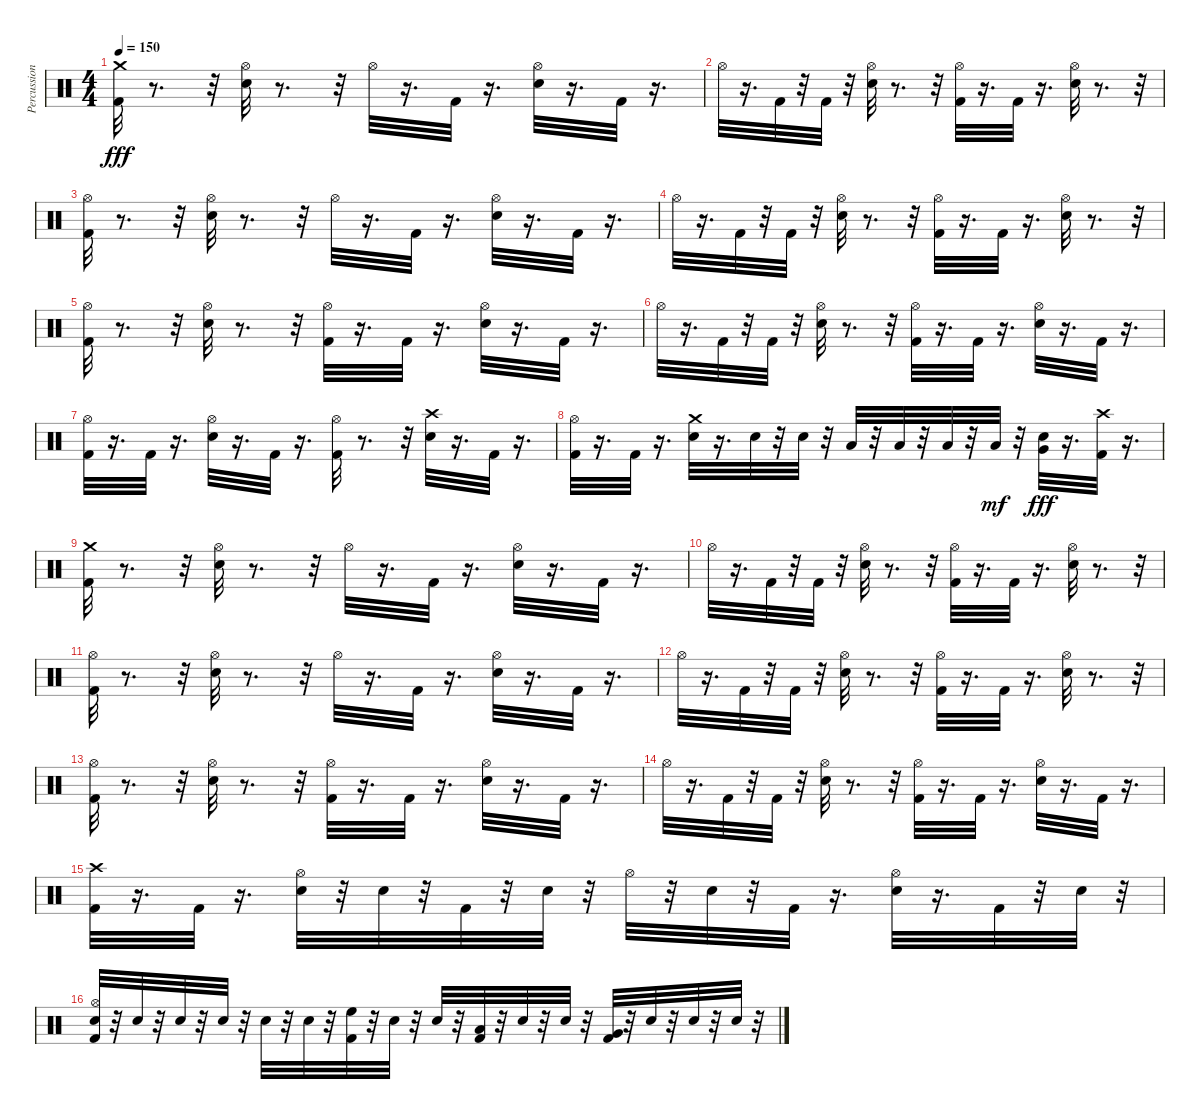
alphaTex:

\track ("Percussion" "Percussion") {instrument percussion}
\staff {score}
\articulation defaults
\ts (4 4)
\tempo 150
\clef neutral
\ks c
("Crash medium (hit)" "Kick (hit) 2").32{dy fff} r.8{d} r.32 ("Snare (hit) 2" "Hi-Hat (open)").32 r.8{d} r.32 "Hi-Hat (open)".32 r.16{d} "Kick (hit) 2".32 r.16{d} ("Snare (hit) 2" "Hi-Hat (open)").32 r.16{d} "Kick (hit) 2".32 r.16{d} |
"Hi-Hat (open)".32 r.16{d} "Kick (hit) 2".32 r.32 "Kick (hit) 2".32 r.32 ("Snare (hit) 2" "Hi-Hat (open)").32 r.8{d} r.32 ("Hi-Hat (open)" "Kick (hit) 2").32 r.16{d} "Kick (hit) 2".32 r.16{d} ("Snare (hit) 2" "Hi-Hat (open)").32 r.8{d} r.32 |
("Hi-Hat (open)" "Kick (hit) 2").32 r.8{d} r.32 ("Snare (hit) 2" "Hi-Hat (open)").32 r.8{d} r.32 "Hi-Hat (open)".32 r.16{d} "Kick (hit) 2".32 r.16{d} ("Hi-Hat (open)" "Snare (hit) 2").32 r.16{d} "Kick (hit) 2".32 r.16{d} |
"Hi-Hat (open)".32 r.16{d} "Kick (hit) 2".32 r.32 "Kick (hit) 2".32 r.32 ("Snare (hit) 2" "Hi-Hat (open)").32 r.8{d} r.32 ("Hi-Hat (open)" "Kick (hit) 2").32 r.16{d} "Kick (hit) 2".32 r.16{d} ("Snare (hit) 2" "Hi-Hat (open)").32 r.8{d} r.32 |
("Hi-Hat (open)" "Kick (hit) 2").32 r.8{d} r.32 ("Hi-Hat (open)" "Snare (hit) 2").32 r.8{d} r.32 ("Hi-Hat (open)" "Kick (hit) 2").32 r.16{d} "Kick (hit) 2".32 r.16{d} ("Snare (hit) 2" "Hi-Hat (open)").32 r.16{d} "Kick (hit) 2".32 r.16{d} |
"Hi-Hat (open)".32 r.16{d} "Kick (hit) 2".32 r.32 "Kick (hit) 2".32 r.32 ("Snare (hit) 2" "Hi-Hat (open)").32 r.8{d} r.32 ("Hi-Hat (open)" "Kick (hit) 2").32 r.16{d} "Kick (hit) 2".32 r.16{d} ("Hi-Hat (open)" "Snare (hit) 2").32 r.16{d} "Kick (hit) 2".32 r.16{d} |
("Hi-Hat (open)" "Kick (hit) 2").32 r.16{d} "Kick (hit) 2".32 r.16{d} ("Electric Snare (hit)" "Hi-Hat (open)").32 r.16{d} "Kick (hit) 2".32 r.16{d} ("Hi-Hat (open)" "Kick (hit) 2").32 r.8{d} r.32 ("Electric Snare (hit)" "Crash high (hit)").32 r.16{d} "Kick (hit) 2".32 r.16{d} |
("Hi-Hat (open)" "Kick (hit) 2").32 r.16{d} "Kick (hit) 2".32 r.16{d} ("Crash medium (hit)" "Electric Snare (hit)").32 r.16{d} "Snare (hit) 2".32 r.32 "Electric Snare (hit)".32 r.32 "Low Tom (hit)".32 r.32 "Low Tom (hit)".32 r.32 "Low Tom (hit)".32 r.32 "Low Tom (hit)".32{dy mf} r.32 ("Very Low Tom (hit)" "Electric Snare (hit)").32{dy fff} r.16{d} ("Crash high (hit)" "Kick (hit) 2").32 r.16{d} |
("Crash medium (hit)" "Kick (hit) 2").32 r.8{d} r.32 ("Snare (hit) 2" "Hi-Hat (open)").32 r.8{d} r.32 "Hi-Hat (open)".32 r.16{d} "Kick (hit) 2".32 r.16{d} ("Snare (hit) 2" "Hi-Hat (open)").32 r.16{d} "Kick (hit) 2".32 r.16{d} |
"Hi-Hat (open)".32 r.16{d} "Kick (hit) 2".32 r.32 "Kick (hit) 2".32 r.32 ("Snare (hit) 2" "Hi-Hat (open)").32 r.8{d} r.32 ("Hi-Hat (open)" "Kick (hit) 2").32 r.16{d} "Kick (hit) 2".32 r.16{d} ("Snare (hit) 2" "Hi-Hat (open)").32 r.8{d} r.32 |
("Hi-Hat (open)" "Kick (hit) 2").32 r.8{d} r.32 ("Snare (hit) 2" "Hi-Hat (open)").32 r.8{d} r.32 "Hi-Hat (open)".32 r.16{d} "Kick (hit) 2".32 r.16{d} ("Hi-Hat (open)" "Snare (hit) 2").32 r.16{d} "Kick (hit) 2".32 r.16{d} |
"Hi-Hat (open)".32 r.16{d} "Kick (hit) 2".32 r.32 "Kick (hit) 2".32 r.32 ("Snare (hit) 2" "Hi-Hat (open)").32 r.8{d} r.32 ("Hi-Hat (open)" "Kick (hit) 2").32 r.16{d} "Kick (hit) 2".32 r.16{d} ("Snare (hit) 2" "Hi-Hat (open)").32 r.8{d} r.32 |
("Hi-Hat (open)" "Kick (hit) 2").32 r.8{d} r.32 ("Hi-Hat (open)" "Snare (hit) 2").32 r.8{d} r.32 ("Hi-Hat (open)" "Kick (hit) 2").32 r.16{d} "Kick (hit) 2".32 r.16{d} ("Snare (hit) 2" "Hi-Hat (open)").32 r.16{d} "Kick (hit) 2".32 r.16{d} |
"Hi-Hat (open)".32 r.16{d} "Kick (hit) 2".32 r.32 "Kick (hit) 2".32 r.32 ("Snare (hit) 2" "Hi-Hat (open)").32 r.8{d} r.32 ("Hi-Hat (open)" "Kick (hit) 2").32 r.16{d} "Kick (hit) 2".32 r.16{d} ("Hi-Hat (open)" "Snare (hit) 2").32 r.16{d} "Kick (hit) 2".32 r.16{d} |
("Crash high (hit)" "Kick (hit) 2").32 r.16{d} "Kick (hit) 2".32 r.16{d} ("Electric Snare (hit)" "Hi-Hat (open)").32 r.32 "Snare (hit) 2".32 r.32 "Kick (hit) 2".32 r.32 "Electric Snare (hit)".32 r.32 "Hi-Hat (open)".32 r.32 "Snare (hit) 2".32 r.32 "Kick (hit) 2".32 r.16{d} ("Electric Snare (hit)" "Hi-Hat (open)").32 r.16{d} "Kick (hit) 2".32 r.32 "Snare (hit) 2".32 r.32 |
("Electric Snare (hit)" "Hi-Hat (open)" "Kick (hit) 2").32 r.32 "Snare (hit) 2".32 r.32 "Snare (hit) 2".32 r.32 "Snare (hit) 2".32 r.32 "Electric Snare (hit)".32 r.32 "Snare (hit) 2".32 r.32 ("High Floor Tom (hit)" "Kick (hit) 2").32 r.32 "Snare (hit) 2".32 r.32 "Snare (hit) 2".32 r.32 ("Kick (hit) 2" "Low Tom (hit)").32 r.32 "Snare (hit) 2".32 r.32 "Snare (hit) 2".32 r.32 ("Kick (hit) 2" "Very Low Tom (hit)").32 r.32 "Snare (hit) 2".32 r.32 "Snare (hit) 2".32 r.32 "Snare (hit) 2".32 r.32
